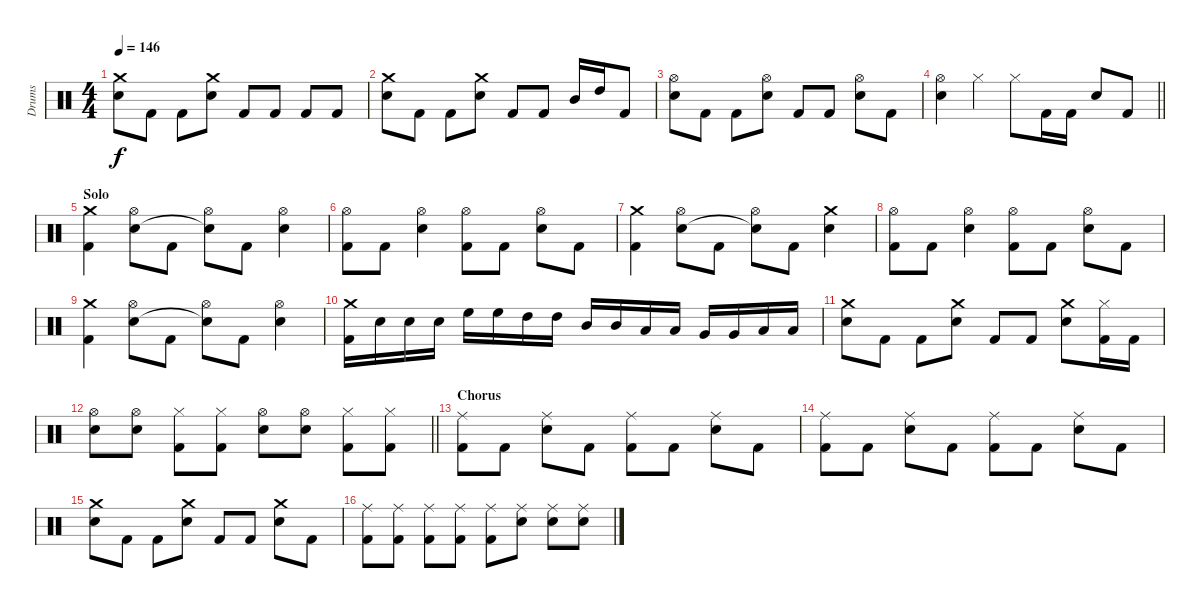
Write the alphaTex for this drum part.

\track ("Drums" "Drums") {instrument percussion}
\staff {score}
\articulation defaults
\ts (4 4)
\tempo 146
\clef neutral
\ks c
("Crash medium (hit)" "Electric Snare (hit)").8{dy f} "Kick (hit) 2".8 "Kick (hit) 2".8 ("Crash medium (hit)" "Electric Snare (hit)").8 "Kick (hit) 2".8 "Kick (hit) 2".8 "Kick (hit) 2".8 "Kick (hit) 2".8 |
("Crash medium (hit)" "Electric Snare (hit)").8 "Kick (hit) 2".8 "Kick (hit) 2".8 ("Crash medium (hit)" "Electric Snare (hit)").8 "Kick (hit) 2".8 "Kick (hit) 2".8 "Mid Tom (hit)".16 "High Tom (hit)".16 "Kick (hit) 2".8 |
("Hi-Hat (open)" "Electric Snare (hit)").8 "Kick (hit) 2".8 "Kick (hit) 2".8 ("Hi-Hat (open)" "Electric Snare (hit)").8 "Kick (hit) 2".8 "Kick (hit) 2".8 ("Hi-Hat (open)" "Electric Snare (hit)").8 "Kick (hit) 2".8 |
\barLineRight lightlight
("Hi-Hat (open)" "Electric Snare (hit)").4 "Hi-Hat (closed)".4 "Hi-Hat (closed)".8 "Kick (hit) 2".16 "Kick (hit) 2".16 "Electric Snare (hit)".8 "Kick (hit) 2".8 |
\section ("" "Solo")
("Crash medium (hit)" "Kick (hit) 2").4 ("Hi-Hat (open)" "Electric Snare (hit)").8 "Kick (hit) 2".8 ("Hi-Hat (open)" "Snare (hit)"{t}).8 "Kick (hit) 2".8 ("Hi-Hat (open)" "Electric Snare (hit)").4 |
("Hi-Hat (open)" "Kick (hit) 2").8 "Kick (hit) 2".8 ("Hi-Hat (open)" "Electric Snare (hit)").4 ("Hi-Hat (open)" "Kick (hit) 2").8 "Kick (hit) 2".8 ("Hi-Hat (open)" "Electric Snare (hit)").8 "Kick (hit) 2".8 |
("Crash medium (hit)" "Kick (hit) 2").4 ("Hi-Hat (open)" "Electric Snare (hit)").8 "Kick (hit) 2".8 ("Hi-Hat (open)" "Snare (hit)"{t}).8 "Kick (hit) 2".8 ("Crash medium (hit)" "Electric Snare (hit)").4 |
("Hi-Hat (open)" "Kick (hit) 2").8 "Kick (hit) 2".8 ("Hi-Hat (open)" "Electric Snare (hit)").4 ("Hi-Hat (open)" "Kick (hit) 2").8 "Kick (hit) 2".8 ("Hi-Hat (open)" "Electric Snare (hit)").8 "Kick (hit) 2".8 |
("Crash medium (hit)" "Kick (hit) 2").4 ("Hi-Hat (open)" "Electric Snare (hit)").8 "Kick (hit) 2".8 ("Hi-Hat (open)" "Snare (hit)"{t}).8 "Kick (hit) 2".8 ("Hi-Hat (open)" "Electric Snare (hit)").4 |
("Crash medium (hit)" "Kick (hit) 2").16 "Electric Snare (hit)".16 "Electric Snare (hit)".16 "Electric Snare (hit)".16 "High Floor Tom (hit)".16 "High Floor Tom (hit)".16 "High Tom (hit)".16 "High Tom (hit)".16 "Mid Tom (hit)".16 "Mid Tom (hit)".16 "Low Tom (hit)".16 "Low Tom (hit)".16 "Very Low Tom (hit)".16 "Very Low Tom (hit)".16 "Low Floor Tom (hit)".16 "Low Floor Tom (hit)".16 |
("Crash medium (hit)" "Electric Snare (hit)").8 "Kick (hit) 2".8 "Kick (hit) 2".8 ("Crash medium (hit)" "Electric Snare (hit)").8 "Kick (hit) 2".8 "Kick (hit) 2".8 ("Crash medium (hit)" "Electric Snare (hit)").8 ("Hi-Hat (closed)" "Kick (hit) 2").16 "Kick (hit) 2".16 |
\barLineRight lightlight
("Hi-Hat (open)" "Electric Snare (hit)").8 ("Hi-Hat (open)" "Electric Snare (hit)").8 ("Hi-Hat (closed)" "Kick (hit) 2").8 ("Hi-Hat (closed)" "Kick (hit) 2").8 ("Hi-Hat (open)" "Electric Snare (hit)").8 ("Hi-Hat (open)" "Electric Snare (hit)").8 ("Hi-Hat (closed)" "Kick (hit) 2").8 ("Hi-Hat (closed)" "Kick (hit) 2").8 |
\section ("" "Chorus")
("Ride (middle)" "Kick (hit) 2").8 "Kick (hit) 2".8 ("Ride (middle)" "Electric Snare (hit)").8 "Kick (hit) 2".8 ("Ride (middle)" "Kick (hit) 2").8 "Kick (hit) 2".8 ("Ride (middle)" "Electric Snare (hit)").8 "Kick (hit) 2".8 |
("Ride (middle)" "Kick (hit) 2").8 "Kick (hit) 2".8 ("Ride (middle)" "Electric Snare (hit)").8 "Kick (hit) 2".8 ("Ride (middle)" "Kick (hit) 2").8 "Kick (hit) 2".8 ("Ride (middle)" "Electric Snare (hit)").8 "Kick (hit) 2".8 |
("Crash medium (hit)" "Electric Snare (hit)").8 "Kick (hit) 2".8 "Kick (hit) 2".8 ("Crash medium (hit)" "Electric Snare (hit)").8 "Kick (hit) 2".8 "Kick (hit) 2".8 ("Crash medium (hit)" "Electric Snare (hit)").8 "Kick (hit) 2".8 |
("Ride (middle)" "Kick (hit) 2").8 ("Ride (middle)" "Kick (hit) 2").8 ("Ride (middle)" "Kick (hit) 2").8 ("Ride (middle)" "Kick (hit) 2").8 ("Ride (middle)" "Kick (hit) 2").8 ("Ride (middle)" "Electric Snare (hit)").8 ("Ride (middle)" "Electric Snare (hit)").8 ("Ride (middle)" "Electric Snare (hit)").8
